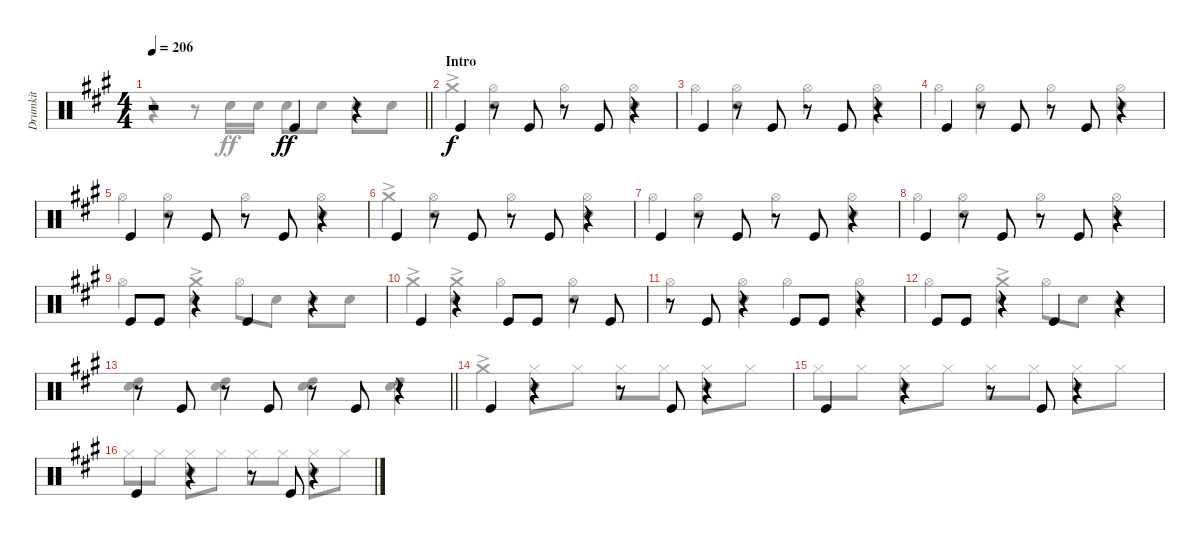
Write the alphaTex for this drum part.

\track ("Drumkit" "Drumkit") {instrument percussion}
\staff {score}
\articulation defaults
\voice
\ts (4 4)
\tempo 206
\clef neutral
\barLineRight lightlight
\ks a
r.2{dy ff} "Kick (hit)".4 r.4 |
\section ("" "Intro")
"Kick (hit)".4{dy f} r.8 "Kick (hit)".8 r.8 "Kick (hit)".8 r.4 |
"Kick (hit)".4 r.8 "Kick (hit)".8 r.8 "Kick (hit)".8 r.4 |
"Kick (hit)".4 r.8 "Kick (hit)".8 r.8 "Kick (hit)".8 r.4 |
"Kick (hit)".4 r.8 "Kick (hit)".8 r.8 "Kick (hit)".8 r.4 |
"Kick (hit)".4 r.8 "Kick (hit)".8 r.8 "Kick (hit)".8 r.4 |
"Kick (hit)".4 r.8 "Kick (hit)".8 r.8 "Kick (hit)".8 r.4 |
"Kick (hit)".4 r.8 "Kick (hit)".8 r.8 "Kick (hit)".8 r.4 |
"Kick (hit)".8 "Kick (hit)".8 r.4 "Kick (hit)".4 r.4 |
"Kick (hit)".4 r.4 "Kick (hit)".8 "Kick (hit)".8 r.8 "Kick (hit)".8 |
r.8 "Kick (hit)".8 r.4 "Kick (hit)".8 "Kick (hit)".8 r.4 |
"Kick (hit)".8 "Kick (hit)".8 r.4 "Kick (hit)".4 r.4 |
\barLineRight lightlight
r.8 "Kick (hit)".8 r.8 "Kick (hit)".8 r.8 "Kick (hit)".8 r.4 |
\section ("" "")
"Kick (hit)".4 r.4 r.8 "Kick (hit)".8 r.4 |
"Kick (hit)".4 r.4 r.8 "Kick (hit)".8 r.4 |
"Kick (hit)".4 r.4 r.8 "Kick (hit)".8 r.4
\voice
\clef neutral
\ottava regular
\simile none
\barLineRight lightlight
\ks a
r.4{dy ff} r.8 "Snare (hit) 2".16 "Snare (hit) 2".16 "Snare (hit) 2".8 "Snare (hit) 2".8 "Snare (hit) 2".8 "Snare (hit) 2".8 |
"Crash medium (hit)"{ac}.4{dy f} ("Hi-Hat (open)" "Snare (hit) 2").4 "Hi-Hat (open)".4 ("Hi-Hat (open)" "Snare (hit) 2").4 |
"Hi-Hat (open)".4 ("Hi-Hat (open)" "Snare (hit) 2").4 "Hi-Hat (open)".4 ("Hi-Hat (open)" "Snare (hit) 2").4 |
"Hi-Hat (open)".4 ("Hi-Hat (open)" "Snare (hit) 2").4 "Hi-Hat (open)".4 ("Hi-Hat (open)" "Snare (hit) 2").4 |
"Hi-Hat (open)".4 ("Hi-Hat (open)" "Snare (hit) 2").4 "Hi-Hat (open)".4 ("Hi-Hat (open)" "Snare (hit) 2").4 |
"Crash medium (hit)"{ac}.4 ("Hi-Hat (open)" "Snare (hit) 2").4 "Hi-Hat (open)".4 ("Hi-Hat (open)" "Snare (hit) 2").4 |
"Hi-Hat (open)".4 ("Hi-Hat (open)" "Snare (hit) 2").4 "Hi-Hat (open)".4 ("Hi-Hat (open)" "Snare (hit) 2").4 |
"Hi-Hat (open)".4 ("Hi-Hat (open)" "Snare (hit) 2").4 "Hi-Hat (open)".4 ("Hi-Hat (open)" "Snare (hit) 2").4 |
"Hi-Hat (open)".4 ("Crash medium (hit)"{ac} "Snare (hit) 2").4 "Hi-Hat (open)".8 "Snare (hit) 2".8 "Snare (hit) 2".8 "Snare (hit) 2".8 |
"Crash medium (hit)"{ac}.4 ("Crash medium (hit)"{ac} "Snare (hit) 2").4 "Hi-Hat (open)".4 ("Hi-Hat (open)" "Snare (hit) 2").4 |
"Hi-Hat (open)".4 ("Hi-Hat (open)" "Snare (hit) 2").4 "Hi-Hat (open)".4 ("Hi-Hat (open)" "Snare (hit) 2").4 |
"Hi-Hat (open)".4 ("Crash medium (hit)"{ac} "Snare (hit) 2").4 "Hi-Hat (open)".8 "Snare (hit) 2".8 "Snare (hit) 2".4 |
\barLineRight lightlight
("Snare (hit) 2" "High Tom (hit)").4 ("High Tom (hit)" "Snare (hit) 2").4 ("Snare (hit) 2" "High Tom (hit)").4 ("High Tom (hit)" "Snare (hit) 2").4 |
"Crash medium (hit)"{ac}.4 ("Hi-Hat (closed)" "Snare (hit) 2").8 "Hi-Hat (closed)".8 "Hi-Hat (closed)".8 "Hi-Hat (closed)".8 ("Hi-Hat (closed)" "Snare (hit) 2").8 "Hi-Hat (closed)".8 |
"Hi-Hat (closed)".8 "Hi-Hat (closed)".8 ("Hi-Hat (closed)" "Snare (hit) 2").8 "Hi-Hat (closed)".8 "Hi-Hat (closed)".8 "Hi-Hat (closed)".8 ("Hi-Hat (closed)" "Snare (hit) 2").8 "Hi-Hat (closed)".8 |
"Hi-Hat (closed)".8 "Hi-Hat (closed)".8 ("Hi-Hat (closed)" "Snare (hit) 2").8 "Hi-Hat (closed)".8 "Hi-Hat (closed)".8 "Hi-Hat (closed)".8 ("Hi-Hat (closed)" "Snare (hit) 2").8 "Hi-Hat (closed)".8
